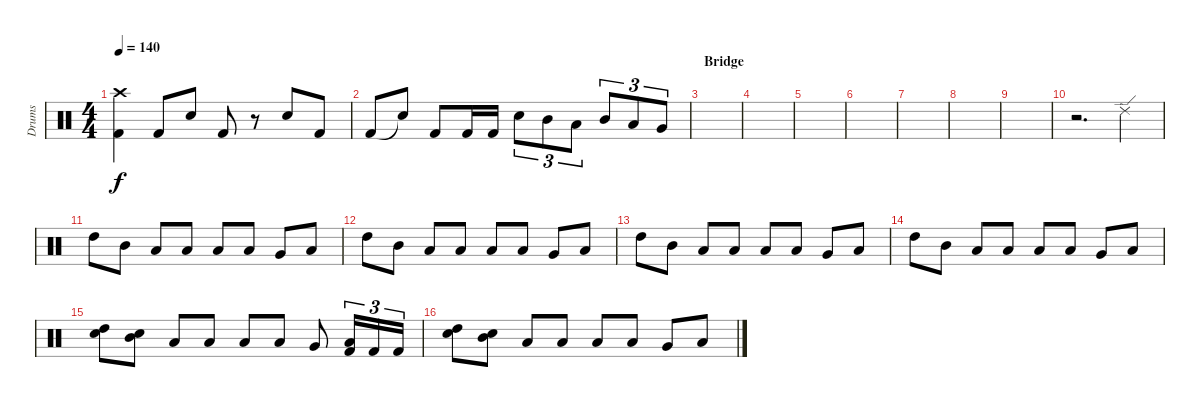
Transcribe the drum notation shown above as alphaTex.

\track ("Drums" "Drums") {instrument percussion}
\staff {score}
\articulation defaults
\ts (4 4)
\tempo 140
\clef neutral
\ks c
("Crash high (hit)" "Kick (hit) 2").4{dy f} "Kick (hit) 2".8 "Electric Snare (hit)".8 "Kick (hit) 2".8 r.8 "Electric Snare (hit)".8 "Kick (hit) 2".8 |
"Kick (hit) 2".8 "Snare (hit)"{t}.8 "Kick (hit) 2".8 "Kick (hit) 2".16 "Kick (hit) 2".16 "Electric Snare (hit)".8{tu (3 2)} "Mid Tom (hit)".8{tu (3 2)} "Low Tom (hit)".8{tu (3 2)} "Mid Tom (hit)".8{tu (3 2)} "Low Tom (hit)".8{tu (3 2)} "Very Low Tom (hit)".8{tu (3 2)} |
\section ("" "Bridge")
|
|
|
|
|
|
|
r.2{d} "Ride (edge) 2".4 |
"High Tom (hit)".8 "Mid Tom (hit)".8 "Low Floor Tom (hit)".8 "Low Tom (hit)".8 "Low Floor Tom (hit)".8 "Low Floor Tom (hit)".8 "Very Low Tom (hit)".8 "Low Floor Tom (hit)".8 |
"High Tom (hit)".8 "Mid Tom (hit)".8 "Low Floor Tom (hit)".8 "Low Tom (hit)".8 "Low Floor Tom (hit)".8 "Low Floor Tom (hit)".8 "Very Low Tom (hit)".8 "Low Floor Tom (hit)".8 |
"High Tom (hit)".8 "Mid Tom (hit)".8 "Low Floor Tom (hit)".8 "Low Tom (hit)".8 "Low Floor Tom (hit)".8 "Low Floor Tom (hit)".8 "Very Low Tom (hit)".8 "Low Floor Tom (hit)".8 |
"High Tom (hit)".8 "Mid Tom (hit)".8 "Low Floor Tom (hit)".8 "Low Tom (hit)".8 "Low Floor Tom (hit)".8 "Low Tom (hit)".8 "Very Low Tom (hit)".8 "Low Floor Tom (hit)".8 |
("High Tom (hit)" "Electric Snare (hit)").8 ("Mid Tom (hit)" "Electric Snare (hit)").8 "Low Floor Tom (hit)".8 "Low Tom (hit)".8 "Low Floor Tom (hit)".8 "Low Floor Tom (hit)".8 "Very Low Tom (hit)".8 ("Low Floor Tom (hit)" "Kick (hit) 2").16{tu (3 2)} "Kick (hit) 2".16{tu (3 2)} "Kick (hit) 2".16{tu (3 2)} |
("High Tom (hit)" "Electric Snare (hit)").8 ("Mid Tom (hit)" "Electric Snare (hit)").8 "Low Floor Tom (hit)".8 "Low Tom (hit)".8 "Low Floor Tom (hit)".8 "Low Floor Tom (hit)".8 "Very Low Tom (hit)".8 "Low Floor Tom (hit)".8
